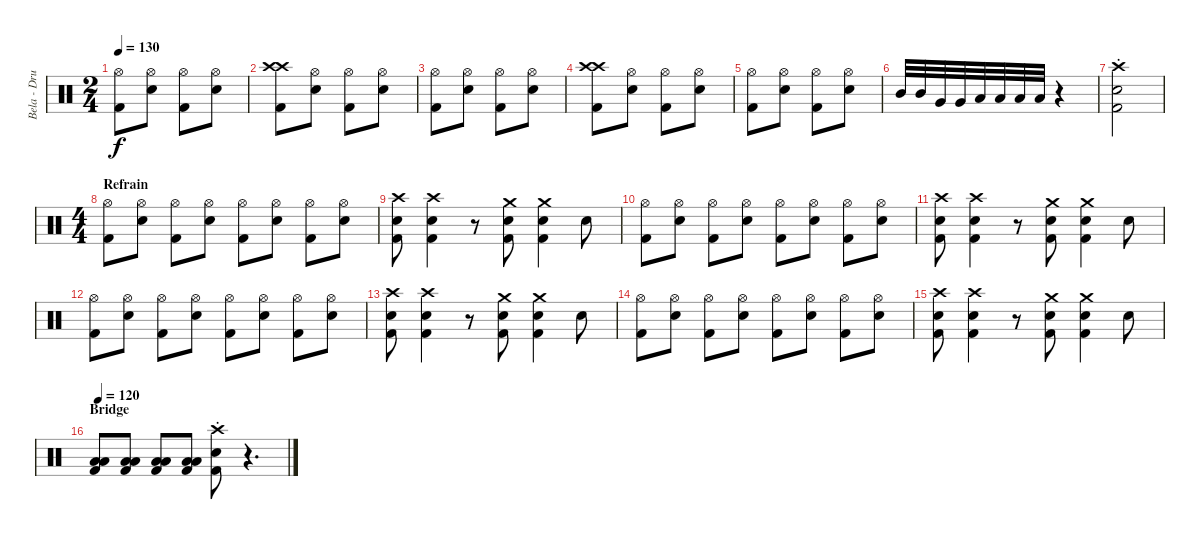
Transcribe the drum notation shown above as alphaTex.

\track ("Bela - Drums" "Bela - Dru") {instrument percussion}
\staff {score}
\articulation defaults
\ts (2 4)
\tempo 130
\clef neutral
\ks c
("Hi-Hat (open)" "Kick (hit) 2").8{dy f} ("Hi-Hat (open)" "Snare (hit) 2").8 ("Hi-Hat (open)" "Kick (hit) 2").8 ("Hi-Hat (open)" "Snare (hit) 2").8 |
("Crash high (hit)" "Crash high (hit)" "Kick (hit) 2").8 ("Hi-Hat (open)" "Snare (hit) 2").8 ("Hi-Hat (open)" "Kick (hit) 2").8 ("Hi-Hat (open)" "Snare (hit) 2").8 |
("Hi-Hat (open)" "Kick (hit) 2").8 ("Hi-Hat (open)" "Snare (hit) 2").8 ("Hi-Hat (open)" "Kick (hit) 2").8 ("Hi-Hat (open)" "Snare (hit) 2").8 |
("Crash high (hit)" "Crash high (hit)" "Kick (hit) 2").8 ("Hi-Hat (open)" "Snare (hit) 2").8 ("Hi-Hat (open)" "Kick (hit) 2").8 ("Hi-Hat (open)" "Snare (hit) 2").8 |
("Hi-Hat (open)" "Kick (hit) 2").8 ("Hi-Hat (open)" "Snare (hit) 2").8 ("Hi-Hat (open)" "Kick (hit) 2").8 ("Hi-Hat (open)" "Snare (hit) 2").8 |
"Mid Tom (hit)".32 "Mid Tom (hit)".32 "Very Low Tom (hit)".32 "Very Low Tom (hit)".32 "Low Tom (hit)".32 "Low Tom (hit)".32 "Low Floor Tom (hit)".32 "Low Floor Tom (hit)".32 r.4 |
("Crash high (hit)"{st} "Snare (hit) 2" "Kick (hit) 2").2 |
\ts (4 4)
\section ("" "Refrain")
("Hi-Hat (open)" "Kick (hit) 2").8 ("Hi-Hat (open)" "Snare (hit) 2").8 ("Hi-Hat (open)" "Kick (hit) 2").8 ("Hi-Hat (open)" "Snare (hit) 2").8 ("Hi-Hat (open)" "Kick (hit) 2").8 ("Hi-Hat (open)" "Snare (hit) 2").8 ("Hi-Hat (open)" "Kick (hit) 2").8 ("Hi-Hat (open)" "Snare (hit) 2").8 |
("Crash high (hit)" "Snare (hit) 2" "Kick (hit) 2").8 ("Crash high (hit)" "Snare (hit) 2" "Kick (hit) 2").4 r.8 ("Crash medium (hit)" "Snare (hit) 2" "Kick (hit) 2").8 ("Crash medium (hit)" "Snare (hit) 2" "Kick (hit) 2").4 "Snare (hit) 2".8 |
("Hi-Hat (open)" "Kick (hit) 2").8 ("Hi-Hat (open)" "Snare (hit) 2").8 ("Hi-Hat (open)" "Kick (hit) 2").8 ("Hi-Hat (open)" "Snare (hit) 2").8 ("Hi-Hat (open)" "Kick (hit) 2").8 ("Hi-Hat (open)" "Snare (hit) 2").8 ("Hi-Hat (open)" "Kick (hit) 2").8 ("Hi-Hat (open)" "Snare (hit) 2").8 |
("Crash high (hit)" "Snare (hit) 2" "Kick (hit) 2").8 ("Crash high (hit)" "Snare (hit) 2" "Kick (hit) 2").4 r.8 ("Crash medium (hit)" "Snare (hit) 2" "Kick (hit) 2").8 ("Crash medium (hit)" "Snare (hit) 2" "Kick (hit) 2").4 "Snare (hit) 2".8 |
("Hi-Hat (open)" "Kick (hit) 2").8 ("Hi-Hat (open)" "Snare (hit) 2").8 ("Hi-Hat (open)" "Kick (hit) 2").8 ("Hi-Hat (open)" "Snare (hit) 2").8 ("Hi-Hat (open)" "Kick (hit) 2").8 ("Hi-Hat (open)" "Snare (hit) 2").8 ("Hi-Hat (open)" "Kick (hit) 2").8 ("Hi-Hat (open)" "Snare (hit) 2").8 |
("Crash high (hit)" "Snare (hit) 2" "Kick (hit) 2").8 ("Crash high (hit)" "Snare (hit) 2" "Kick (hit) 2").4 r.8 ("Crash medium (hit)" "Snare (hit) 2" "Kick (hit) 2").8 ("Crash medium (hit)" "Snare (hit) 2" "Kick (hit) 2").4 "Snare (hit) 2".8 |
("Hi-Hat (open)" "Kick (hit) 2").8 ("Hi-Hat (open)" "Snare (hit) 2").8 ("Hi-Hat (open)" "Kick (hit) 2").8 ("Hi-Hat (open)" "Snare (hit) 2").8 ("Hi-Hat (open)" "Kick (hit) 2").8 ("Hi-Hat (open)" "Snare (hit) 2").8 ("Hi-Hat (open)" "Kick (hit) 2").8 ("Hi-Hat (open)" "Snare (hit) 2").8 |
("Crash high (hit)" "Snare (hit) 2" "Kick (hit) 2").8 ("Crash high (hit)" "Snare (hit) 2" "Kick (hit) 2").4 r.8 ("Crash medium (hit)" "Snare (hit) 2" "Kick (hit) 2").8 ("Crash medium (hit)" "Snare (hit) 2" "Kick (hit) 2").4 "Snare (hit) 2".8 |
\section ("" "Bridge")
\tempo 120
("Low Floor Tom (hit)" "Low Tom (hit)" "Kick (hit) 2").8 ("Low Floor Tom (hit)" "Low Tom (hit)" "Kick (hit) 2").8 ("Low Floor Tom (hit)" "Low Tom (hit)" "Kick (hit) 2").8 ("Low Floor Tom (hit)" "Low Tom (hit)" "Kick (hit) 2").8 ("Crash high (hit)"{st} "Snare (hit) 2" "Kick (hit) 2").8 r.4{d}
